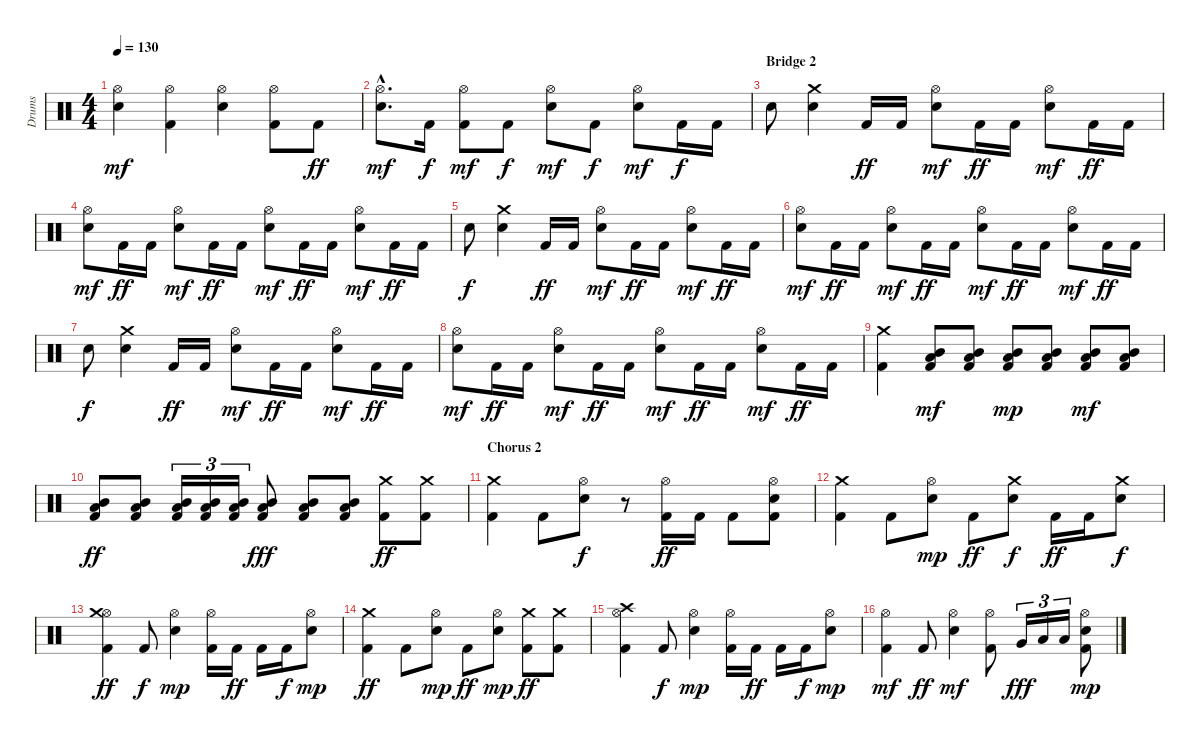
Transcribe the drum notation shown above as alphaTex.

\track ("Drums" "Drums") {instrument percussion}
\staff {score}
\articulation defaults
\ts (4 4)
\tempo 130
\clef neutral
\ks c
("Hi-Hat (open)" "Snare (hit) 2").4{dy mf} ("Kick (hit) 2" "Hi-Hat (open)").4 ("Hi-Hat (open)" "Snare (hit) 2").4 ("Kick (hit) 2" "Hi-Hat (open)").8 "Kick (hit) 2".8{dy ff} |
("Hi-Hat (open)"{hac} "Snare (hit) 2"{hac}).8{d dy mf} "Kick (hit) 2".16{dy f} ("Kick (hit) 2" "Hi-Hat (open)").8{dy mf} "Kick (hit) 2".8{dy f} ("Hi-Hat (open)" "Snare (hit) 2").8{dy mf} "Kick (hit) 2".8{dy f} ("Hi-Hat (open)" "Snare (hit) 2").8{dy mf} "Kick (hit) 2".16{dy f} "Kick (hit) 2".16 |
\section ("" "Bridge 2")
"Snare (hit) 2".8 ("Snare (hit) 2" "Crash medium (hit)").4 "Kick (hit) 2".16{dy ff} "Kick (hit) 2".16 ("Hi-Hat (open)" "Snare (hit) 2").8{dy mf} "Kick (hit) 2".16{dy ff} "Kick (hit) 2".16 ("Hi-Hat (open)" "Snare (hit) 2").8{dy mf} "Kick (hit) 2".16{dy ff} "Kick (hit) 2".16 |
("Hi-Hat (open)" "Snare (hit) 2").8{dy mf} "Kick (hit) 2".16{dy ff} "Kick (hit) 2".16 ("Hi-Hat (open)" "Snare (hit) 2").8{dy mf} "Kick (hit) 2".16{dy ff} "Kick (hit) 2".16 ("Hi-Hat (open)" "Snare (hit) 2").8{dy mf} "Kick (hit) 2".16{dy ff} "Kick (hit) 2".16 ("Hi-Hat (open)" "Snare (hit) 2").8{dy mf} "Kick (hit) 2".16{dy ff} "Kick (hit) 2".16 |
"Snare (hit) 2".8{dy f} ("Snare (hit) 2" "Crash medium (hit)").4 "Kick (hit) 2".16{dy ff} "Kick (hit) 2".16 ("Hi-Hat (open)" "Snare (hit) 2").8{dy mf} "Kick (hit) 2".16{dy ff} "Kick (hit) 2".16 ("Hi-Hat (open)" "Snare (hit) 2").8{dy mf} "Kick (hit) 2".16{dy ff} "Kick (hit) 2".16 |
("Hi-Hat (open)" "Snare (hit) 2").8{dy mf} "Kick (hit) 2".16{dy ff} "Kick (hit) 2".16 ("Hi-Hat (open)" "Snare (hit) 2").8{dy mf} "Kick (hit) 2".16{dy ff} "Kick (hit) 2".16 ("Hi-Hat (open)" "Snare (hit) 2").8{dy mf} "Kick (hit) 2".16{dy ff} "Kick (hit) 2".16 ("Hi-Hat (open)" "Snare (hit) 2").8{dy mf} "Kick (hit) 2".16{dy ff} "Kick (hit) 2".16 |
"Snare (hit) 2".8{dy f} ("Snare (hit) 2" "Crash medium (hit)").4 "Kick (hit) 2".16{dy ff} "Kick (hit) 2".16 ("Hi-Hat (open)" "Snare (hit) 2").8{dy mf} "Kick (hit) 2".16{dy ff} "Kick (hit) 2".16 ("Hi-Hat (open)" "Snare (hit) 2").8{dy mf} "Kick (hit) 2".16{dy ff} "Kick (hit) 2".16 |
("Hi-Hat (open)" "Snare (hit) 2").8{dy mf} "Kick (hit) 2".16{dy ff} "Kick (hit) 2".16 ("Hi-Hat (open)" "Snare (hit) 2").8{dy mf} "Kick (hit) 2".16{dy ff} "Kick (hit) 2".16 ("Hi-Hat (open)" "Snare (hit) 2").8{dy mf} "Kick (hit) 2".16{dy ff} "Kick (hit) 2".16 ("Hi-Hat (open)" "Snare (hit) 2").8{dy mf} "Kick (hit) 2".16{dy ff} "Kick (hit) 2".16 |
("Kick (hit) 2" "Crash medium (hit)").4 ("Kick (hit) 2" "Mid Tom (hit)" "Low Floor Tom (hit)").8{dy mf} ("Kick (hit) 2" "Mid Tom (hit)" "Low Floor Tom (hit)").8 ("Kick (hit) 2" "Mid Tom (hit)" "Low Floor Tom (hit)").8{dy mp} ("Kick (hit) 2" "Mid Tom (hit)" "Low Floor Tom (hit)").8 ("Kick (hit) 2" "Mid Tom (hit)" "Low Floor Tom (hit)").8{dy mf} ("Kick (hit) 2" "Mid Tom (hit)" "Low Floor Tom (hit)").8 |
("Kick (hit) 2" "Mid Tom (hit)" "Low Floor Tom (hit)").8{dy ff} ("Kick (hit) 2" "Mid Tom (hit)" "Low Floor Tom (hit)").8 ("Kick (hit) 2" "Mid Tom (hit)" "Low Floor Tom (hit)").16{tu (3 2)} ("Kick (hit) 2" "Mid Tom (hit)" "Low Floor Tom (hit)").16{tu (3 2)} ("Kick (hit) 2" "Mid Tom (hit)" "Low Floor Tom (hit)").16{tu (3 2)} ("Kick (hit) 2" "Mid Tom (hit)" "Low Floor Tom (hit)").8{dy fff} ("Kick (hit) 2" "Mid Tom (hit)" "Low Floor Tom (hit)").8 ("Kick (hit) 2" "Mid Tom (hit)" "Low Floor Tom (hit)").8 ("Kick (hit) 2" "Crash medium (hit)").8{dy ff} ("Kick (hit) 2" "Crash medium (hit)").8 |
\section ("" "Chorus 2")
("Kick (hit) 2" "Crash medium (hit)").4 "Kick (hit) 2".8 ("Hi-Hat (open)" "Snare (hit) 2").8{dy f} r.8 ("Kick (hit) 2" "Hi-Hat (open)").16{dy ff} "Kick (hit) 2".16 "Kick (hit) 2".8 ("Kick (hit) 2" "Hi-Hat (open)" "Snare (hit) 2").8 |
("Kick (hit) 2" "Crash medium (hit)").4 "Kick (hit) 2".8 ("Hi-Hat (open)" "Snare (hit) 2").8{dy mp} "Kick (hit) 2".8{dy ff} ("Snare (hit) 2" "Crash medium (hit)").8{dy f} "Kick (hit) 2".16{dy ff} "Kick (hit) 2".16 ("Snare (hit) 2" "Crash medium (hit)").8{dy f} |
("Kick (hit) 2" "Hi-Hat (open)" "Crash medium (hit)").4{dy ff} "Kick (hit) 2".8{dy f} ("Hi-Hat (open)" "Snare (hit) 2").4{dy mp} ("Kick (hit) 2" "Hi-Hat (open)").16 "Kick (hit) 2".16{dy ff} "Kick (hit) 2".16 "Kick (hit) 2".16{dy f} ("Hi-Hat (open)" "Snare (hit) 2").8{dy mp} |
("Kick (hit) 2" "Crash medium (hit)").4{dy ff} "Kick (hit) 2".8 ("Hi-Hat (open)" "Snare (hit) 2").8{dy mp} "Kick (hit) 2".8{dy ff} ("Hi-Hat (open)" "Snare (hit) 2").8{dy mp} ("Kick (hit) 2" "Crash medium (hit)").8{dy ff} ("Kick (hit) 2" "Crash medium (hit)").8 |
("Kick (hit) 2" "Hi-Hat (open)" "Crash high (hit)").4 "Kick (hit) 2".8{dy f} ("Hi-Hat (open)" "Snare (hit) 2").4{dy mp} ("Kick (hit) 2" "Hi-Hat (open)").16 "Kick (hit) 2".16{dy ff} "Kick (hit) 2".16 "Kick (hit) 2".16{dy f} ("Hi-Hat (open)" "Snare (hit) 2").8{dy mp} |
("Kick (hit) 2" "Hi-Hat (open)").4{dy mf} "Kick (hit) 2".8{dy ff} ("Hi-Hat (open)" "Snare (hit) 2").4{dy mf} ("Kick (hit) 2" "Hi-Hat (open)").8 "Very Low Tom (hit)".16{tu (3 2) dy fff} "Low Floor Tom (hit)".16{tu (3 2)} "Low Floor Tom (hit)".16{tu (3 2)} ("Kick (hit) 2" "Hi-Hat (open)" "Snare (hit) 2").8{dy mp}
